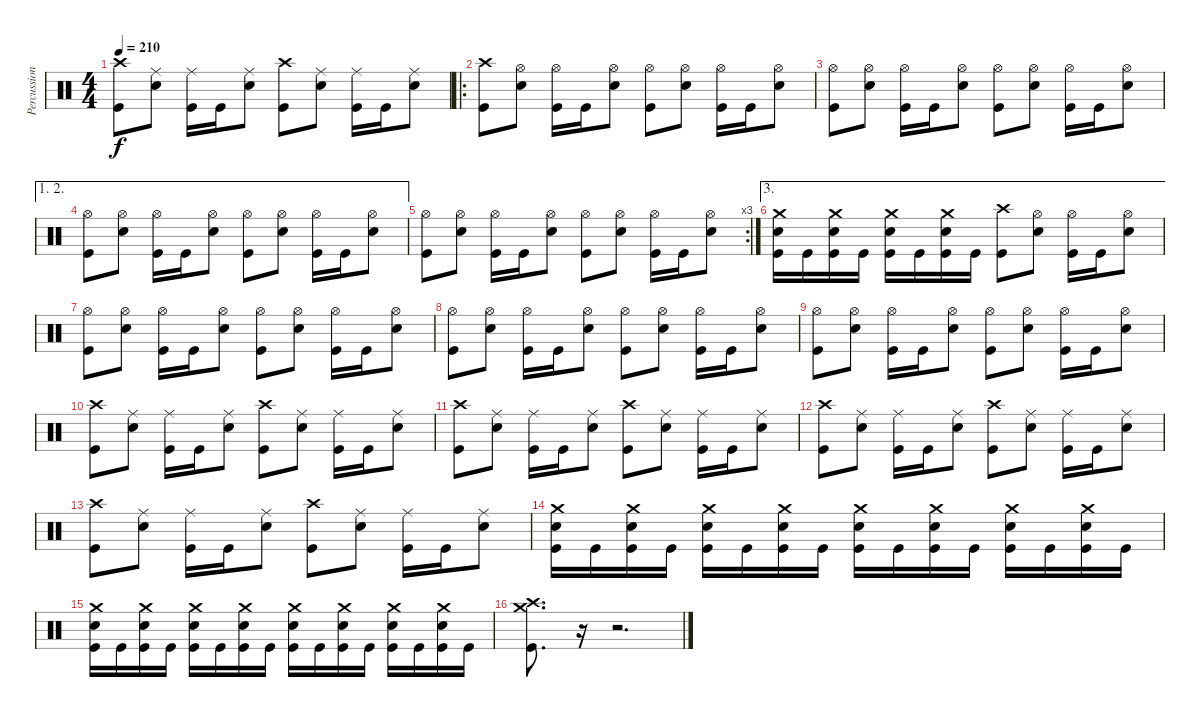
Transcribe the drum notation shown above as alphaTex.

\track ("Percussion" "Percussion") {instrument percussion}
\staff {score}
\articulation defaults
\ts (4 4)
\tempo 210
\clef neutral
\ks c
("Crash high (hit)" "Kick (hit)").8{dy f} ("Ride (middle)" "Electric Snare (hit)").8 ("Ride (middle)" "Kick (hit)").16 "Kick (hit)".16 ("Ride (middle)" "Electric Snare (hit)").8 ("Crash high (hit)" "Kick (hit)").8 ("Ride (middle)" "Electric Snare (hit)").8 ("Ride (middle)" "Kick (hit)").16 "Kick (hit)".16 ("Ride (middle)" "Electric Snare (hit)").8 |
\ro
("Crash high (hit)" "Kick (hit)").8 ("Hi-Hat (open)" "Electric Snare (hit)").8 ("Hi-Hat (open)" "Kick (hit)").16 "Kick (hit)".16 ("Hi-Hat (open)" "Electric Snare (hit)").8 ("Hi-Hat (open)" "Kick (hit)").8 ("Hi-Hat (open)" "Electric Snare (hit)").8 ("Hi-Hat (open)" "Kick (hit)").16 "Kick (hit)".16 ("Hi-Hat (open)" "Electric Snare (hit)").8 |
("Hi-Hat (open)" "Kick (hit)").8 ("Hi-Hat (open)" "Electric Snare (hit)").8 ("Hi-Hat (open)" "Kick (hit)").16 "Kick (hit)".16 ("Hi-Hat (open)" "Electric Snare (hit)").8 ("Hi-Hat (open)" "Kick (hit)").8 ("Hi-Hat (open)" "Electric Snare (hit)").8 ("Hi-Hat (open)" "Kick (hit)").16 "Kick (hit)".16 ("Hi-Hat (open)" "Electric Snare (hit)").8 |
\ae (1 2)
("Hi-Hat (open)" "Kick (hit)").8 ("Hi-Hat (open)" "Electric Snare (hit)").8 ("Hi-Hat (open)" "Kick (hit)").16 "Kick (hit)".16 ("Hi-Hat (open)" "Electric Snare (hit)").8 ("Hi-Hat (open)" "Kick (hit)").8 ("Hi-Hat (open)" "Electric Snare (hit)").8 ("Hi-Hat (open)" "Kick (hit)").16 "Kick (hit)".16 ("Hi-Hat (open)" "Electric Snare (hit)").8 |
\rc 3
("Hi-Hat (open)" "Kick (hit)").8 ("Hi-Hat (open)" "Electric Snare (hit)").8 ("Hi-Hat (open)" "Kick (hit)").16 "Kick (hit)".16 ("Hi-Hat (open)" "Electric Snare (hit)").8 ("Hi-Hat (open)" "Kick (hit)").8 ("Hi-Hat (open)" "Electric Snare (hit)").8 ("Hi-Hat (open)" "Kick (hit)").16 "Kick (hit)".16 ("Hi-Hat (open)" "Electric Snare (hit)").8 |
\ae 3
("Crash medium (hit)" "Electric Snare (hit)" "Kick (hit)").16 "Kick (hit)".16 ("Crash medium (hit)" "Electric Snare (hit)" "Kick (hit)").16 "Kick (hit)".16 ("Crash medium (hit)" "Electric Snare (hit)" "Kick (hit)").16 "Kick (hit)".16 ("Crash medium (hit)" "Electric Snare (hit)" "Kick (hit)").16 "Kick (hit)".16 ("Crash high (hit)" "Kick (hit)").8 ("Hi-Hat (open)" "Electric Snare (hit)").8 ("Hi-Hat (open)" "Kick (hit)").16 "Kick (hit)".16 ("Hi-Hat (open)" "Electric Snare (hit)").8 |
("Hi-Hat (open)" "Kick (hit)").8 ("Hi-Hat (open)" "Electric Snare (hit)").8 ("Hi-Hat (open)" "Kick (hit)").16 "Kick (hit)".16 ("Hi-Hat (open)" "Electric Snare (hit)").8 ("Hi-Hat (open)" "Kick (hit)").8 ("Hi-Hat (open)" "Electric Snare (hit)").8 ("Hi-Hat (open)" "Kick (hit)").16 "Kick (hit)".16 ("Hi-Hat (open)" "Electric Snare (hit)").8 |
("Hi-Hat (open)" "Kick (hit)").8 ("Hi-Hat (open)" "Electric Snare (hit)").8 ("Hi-Hat (open)" "Kick (hit)").16 "Kick (hit)".16 ("Hi-Hat (open)" "Electric Snare (hit)").8 ("Hi-Hat (open)" "Kick (hit)").8 ("Hi-Hat (open)" "Electric Snare (hit)").8 ("Hi-Hat (open)" "Kick (hit)").16 "Kick (hit)".16 ("Hi-Hat (open)" "Electric Snare (hit)").8 |
("Hi-Hat (open)" "Kick (hit)").8 ("Hi-Hat (open)" "Electric Snare (hit)").8 ("Hi-Hat (open)" "Kick (hit)").16 "Kick (hit)".16 ("Hi-Hat (open)" "Electric Snare (hit)").8 ("Hi-Hat (open)" "Kick (hit)").8 ("Hi-Hat (open)" "Electric Snare (hit)").8 ("Hi-Hat (open)" "Kick (hit)").16 "Kick (hit)".16 ("Hi-Hat (open)" "Electric Snare (hit)").8 |
("Crash high (hit)" "Kick (hit)").8 ("Ride (middle)" "Electric Snare (hit)").8 ("Ride (middle)" "Kick (hit)").16 "Kick (hit)".16 ("Ride (middle)" "Electric Snare (hit)").8 ("Crash high (hit)" "Kick (hit)").8 ("Ride (middle)" "Electric Snare (hit)").8 ("Ride (middle)" "Kick (hit)").16 "Kick (hit)".16 ("Ride (middle)" "Electric Snare (hit)").8 |
("Crash high (hit)" "Kick (hit)").8 ("Ride (middle)" "Electric Snare (hit)").8 ("Ride (middle)" "Kick (hit)").16 "Kick (hit)".16 ("Ride (middle)" "Electric Snare (hit)").8 ("Crash high (hit)" "Kick (hit)").8 ("Ride (middle)" "Electric Snare (hit)").8 ("Ride (middle)" "Kick (hit)").16 "Kick (hit)".16 ("Ride (middle)" "Electric Snare (hit)").8 |
("Crash high (hit)" "Kick (hit)").8 ("Ride (middle)" "Electric Snare (hit)").8 ("Ride (middle)" "Kick (hit)").16 "Kick (hit)".16 ("Ride (middle)" "Electric Snare (hit)").8 ("Crash high (hit)" "Kick (hit)").8 ("Ride (middle)" "Electric Snare (hit)").8 ("Ride (middle)" "Kick (hit)").16 "Kick (hit)".16 ("Ride (middle)" "Electric Snare (hit)").8 |
("Crash high (hit)" "Kick (hit)").8 ("Ride (middle)" "Electric Snare (hit)").8 ("Ride (middle)" "Kick (hit)").16 "Kick (hit)".16 ("Ride (middle)" "Electric Snare (hit)").8 ("Crash high (hit)" "Kick (hit)").8 ("Ride (middle)" "Electric Snare (hit)").8 ("Ride (middle)" "Kick (hit)").16 "Kick (hit)".16 ("Ride (middle)" "Electric Snare (hit)").8 |
("Crash medium (hit)" "Electric Snare (hit)" "Kick (hit)").16 "Kick (hit)".16 ("Crash medium (hit)" "Electric Snare (hit)" "Kick (hit)").16 "Kick (hit)".16 ("Crash medium (hit)" "Electric Snare (hit)" "Kick (hit)").16 "Kick (hit)".16 ("Crash medium (hit)" "Electric Snare (hit)" "Kick (hit)").16 "Kick (hit)".16 ("Crash medium (hit)" "Electric Snare (hit)" "Kick (hit)").16 "Kick (hit)".16 ("Crash medium (hit)" "Electric Snare (hit)" "Kick (hit)").16 "Kick (hit)".16 ("Crash medium (hit)" "Electric Snare (hit)" "Kick (hit)").16 "Kick (hit)".16 ("Crash medium (hit)" "Electric Snare (hit)" "Kick (hit)").16 "Kick (hit)".16 |
("Crash medium (hit)" "Electric Snare (hit)" "Kick (hit)").16 "Kick (hit)".16 ("Crash medium (hit)" "Electric Snare (hit)" "Kick (hit)").16 "Kick (hit)".16 ("Crash medium (hit)" "Electric Snare (hit)" "Kick (hit)").16 "Kick (hit)".16 ("Crash medium (hit)" "Electric Snare (hit)" "Kick (hit)").16 "Kick (hit)".16 ("Crash medium (hit)" "Electric Snare (hit)" "Kick (hit)").16 "Kick (hit)".16 ("Crash medium (hit)" "Electric Snare (hit)" "Kick (hit)").16 "Kick (hit)".16 ("Crash medium (hit)" "Electric Snare (hit)" "Kick (hit)").16 "Kick (hit)".16 ("Crash medium (hit)" "Electric Snare (hit)" "Kick (hit)").16 "Kick (hit)".16 |
("Crash medium (hit)" "Crash high (hit)" "Kick (hit)").8{d} r.16{volume 0} r.2{d}
